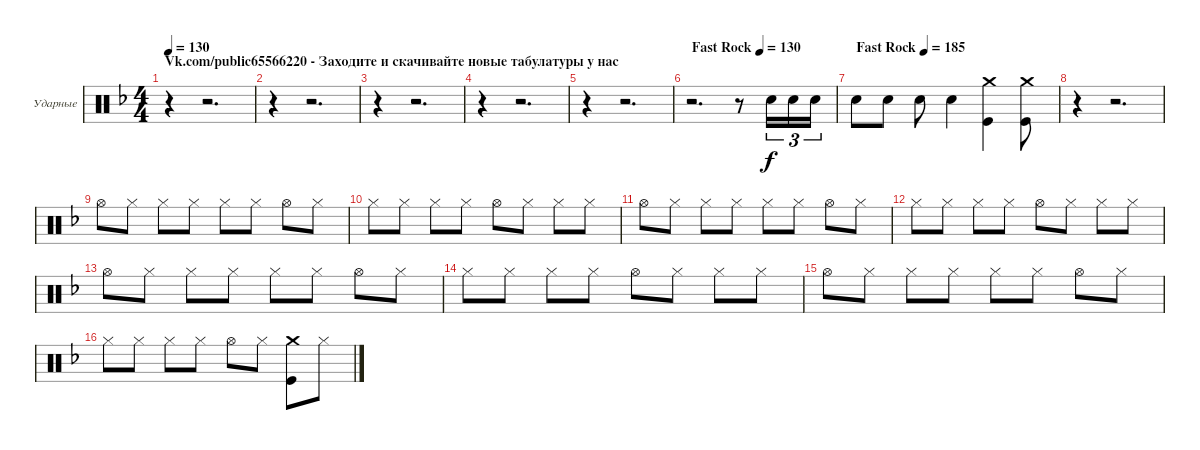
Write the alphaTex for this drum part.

\bracketExtendMode groupsimilarinstruments
\firstSystemTrackNameOrientation horizontal
\otherSystemsTrackNameOrientation horizontal
\track ("Александр Львов" "Ударные") {instrument percussion}
\staff {score}
\articulation defaults
\ts (4 4)
\beaming (8 2 2 2 2)
\section ("" "Vk.com/public65566220 - Заходите и скачивайте новые табулатуры у нас")
\tempo 130
\clef neutral
\ks dminor
r.4{dy f} r.2{d} |
r.4 r.2{d} |
r.4 r.2{d} |
r.4 r.2{d} |
r.4 r.2{d} |
\tempo (130 "Fast Rock")
r.2{d} r.8 "Snare (hit) 2".16{tu (3 2)} "Snare (hit) 2".16{tu (3 2)} "Snare (hit) 2".16{tu (3 2)} |
\tempo (185 "Fast Rock")
"Snare (hit) 2".8 "Snare (hit) 2".8 "Snare (hit) 2".8 "Snare (hit) 2".4 ("Kick (hit)" "Crash medium (hit)").4 ("Kick (hit)" "Crash medium (hit)").8 |
r.4 r.2{d} |
"Hi-Hat (open)".8 "Hi-Hat (closed)".8 "Hi-Hat (closed)".8 "Hi-Hat (closed)".8 "Hi-Hat (closed)".8 "Hi-Hat (closed)".8 "Hi-Hat (open)".8 "Hi-Hat (closed)".8 |
"Hi-Hat (closed)".8 "Hi-Hat (closed)".8 "Hi-Hat (closed)".8 "Hi-Hat (closed)".8 "Hi-Hat (open)".8 "Hi-Hat (closed)".8 "Hi-Hat (closed)".8 "Hi-Hat (closed)".8 |
"Hi-Hat (open)".8 "Hi-Hat (closed)".8 "Hi-Hat (closed)".8 "Hi-Hat (closed)".8 "Hi-Hat (closed)".8 "Hi-Hat (closed)".8 "Hi-Hat (open)".8 "Hi-Hat (closed)".8 |
"Hi-Hat (closed)".8 "Hi-Hat (closed)".8 "Hi-Hat (closed)".8 "Hi-Hat (closed)".8 "Hi-Hat (open)".8 "Hi-Hat (closed)".8 "Hi-Hat (closed)".8 "Hi-Hat (closed)".8 |
"Hi-Hat (open)".8 "Hi-Hat (closed)".8 "Hi-Hat (closed)".8 "Hi-Hat (closed)".8 "Hi-Hat (closed)".8 "Hi-Hat (closed)".8 "Hi-Hat (open)".8 "Hi-Hat (closed)".8 |
"Hi-Hat (closed)".8 "Hi-Hat (closed)".8 "Hi-Hat (closed)".8 "Hi-Hat (closed)".8 "Hi-Hat (open)".8 "Hi-Hat (closed)".8 "Hi-Hat (closed)".8 "Hi-Hat (closed)".8 |
"Hi-Hat (open)".8 "Hi-Hat (closed)".8 "Hi-Hat (closed)".8 "Hi-Hat (closed)".8 "Hi-Hat (closed)".8 "Hi-Hat (closed)".8 "Hi-Hat (open)".8 "Hi-Hat (closed)".8 |
"Hi-Hat (closed)".8 "Hi-Hat (closed)".8 "Hi-Hat (closed)".8 "Hi-Hat (closed)".8 "Hi-Hat (open)".8 "Hi-Hat (closed)".8 ("Crash medium (hit)" "Kick (hit)").8 "Hi-Hat (closed)".8
